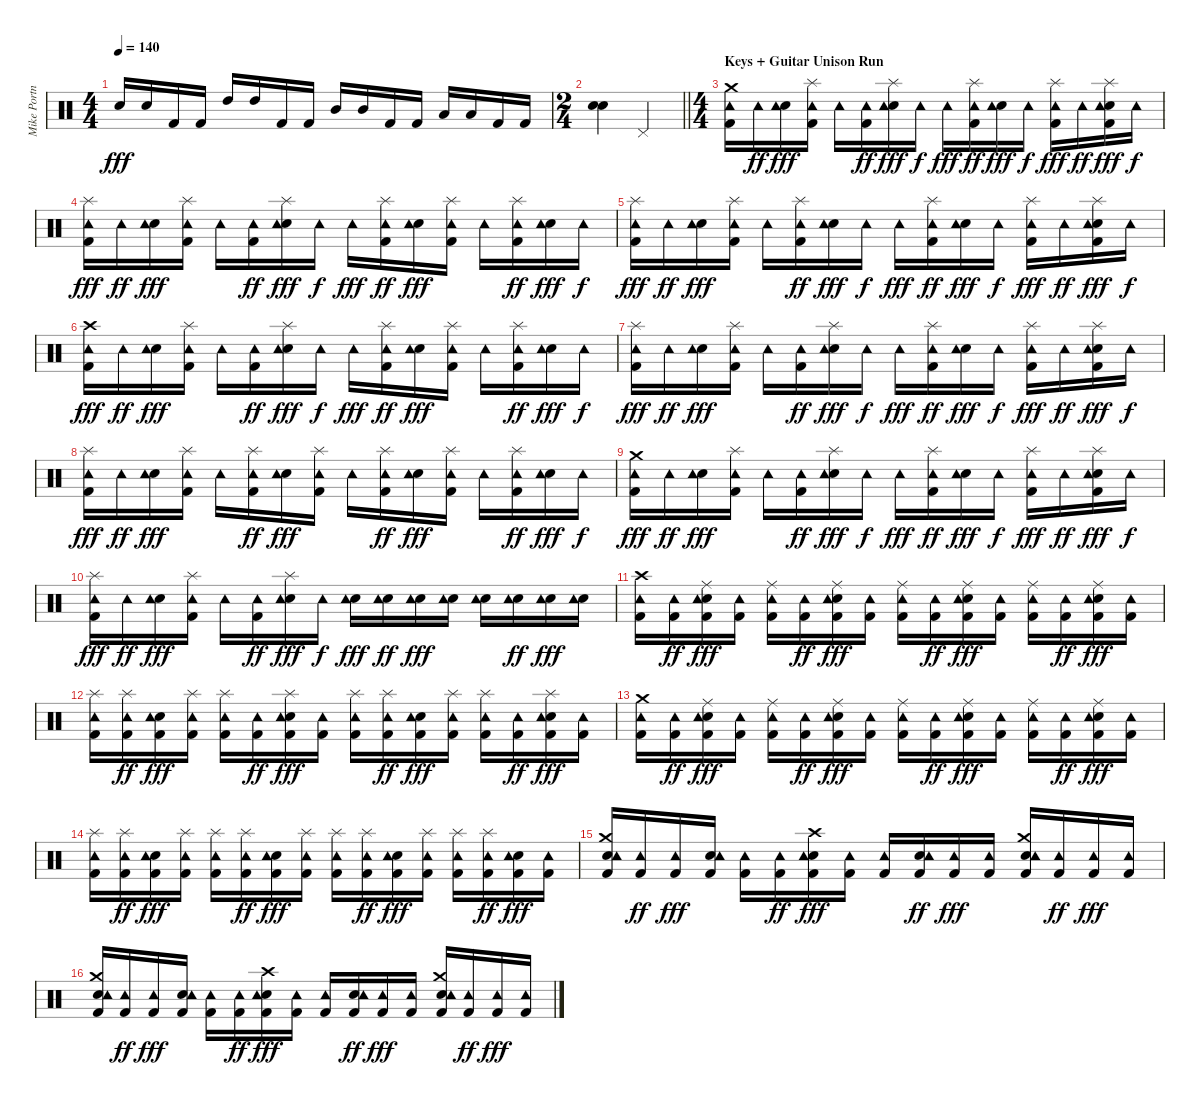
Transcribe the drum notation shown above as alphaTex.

\track ("Mike Portnoy" "Mike Portn") {instrument percussion}
\staff {score}
\articulation defaults
\ts (4 4)
\tempo 140
\clef neutral
\ks c "Snare (hit) 2".16{dy fff} "Snare (hit) 2".16 "Kick (hit) 2".16 "Kick (hit) 2".16 "High Tom (hit)".16 "High Tom (hit)".16 "Kick (hit) 2".16 "Kick (hit) 2".16 "Mid Tom (hit)".16 "Mid Tom (hit)".16 "Kick (hit) 2".16 "Kick (hit) 2".16 "Low Tom (hit)".16 "Low Tom (hit)".16 "Kick (hit) 2".16 "Kick (hit) 2".16
|
\ts (2 4)
\barLineRight lightlight
("Snare (hit) 2" "Snare (hit) 2").4 "Pedal Hi-Hat (hit)".4 |
\ts (4 4)
\section ("" "Keys + Guitar Unison Run")
("Crash medium (hit)" "Kick (hit) 2" "Tambourine (hit)").16 "Tambourine (hit)".16{dy ff} ("Snare (hit) 2" "Tambourine (hit)").16{dy fff} ("Splash (hit)" "Kick (hit) 2" "Tambourine (hit)").16 "Tambourine (hit)".16 ("Kick (hit) 2" "Tambourine (hit)").16{dy ff} ("Splash (hit)" "Snare (hit) 2" "Tambourine (hit)").16{dy fff} "Tambourine (hit)".16{dy f} "Tambourine (hit)".16{dy fff} ("Splash (hit)" "Kick (hit) 2" "Tambourine (hit)").16{dy ff} ("Snare (hit) 2" "Tambourine (hit)").16{dy fff} "Tambourine (hit)".16{dy f} ("Splash (hit)" "Kick (hit) 2" "Tambourine (hit)").16{dy fff} "Tambourine (hit)".16{dy ff} ("Splash (hit)" "Snare (hit) 2" "Kick (hit) 2" "Tambourine (hit)").16{dy fff} "Tambourine (hit)".16{dy f} |
("Splash (hit)" "Kick (hit) 2" "Tambourine (hit)").16{dy fff} "Tambourine (hit)".16{dy ff} ("Snare (hit) 2" "Tambourine (hit)").16{dy fff} ("Splash (hit)" "Kick (hit) 2" "Tambourine (hit)").16 "Tambourine (hit)".16 ("Kick (hit) 2" "Tambourine (hit)").16{dy ff} ("Splash (hit)" "Snare (hit) 2" "Tambourine (hit)").16{dy fff} "Tambourine (hit)".16{dy f} "Tambourine (hit)".16{dy fff} ("Splash (hit)" "Kick (hit) 2" "Tambourine (hit)").16{dy ff} ("Snare (hit) 2" "Tambourine (hit)").16{dy fff} ("Splash (hit)" "Kick (hit) 2" "Tambourine (hit)").16 "Tambourine (hit)".16 ("Splash (hit)" "Kick (hit) 2" "Tambourine (hit)").16{dy ff} ("Snare (hit) 2" "Tambourine (hit)").16{dy fff} "Tambourine (hit)".16{dy f} |
("Splash (hit)" "Kick (hit) 2" "Tambourine (hit)").16{dy fff} "Tambourine (hit)".16{dy ff} ("Snare (hit) 2" "Tambourine (hit)").16{dy fff} ("Splash (hit)" "Kick (hit) 2" "Tambourine (hit)").16 "Tambourine (hit)".16 ("Splash (hit)" "Kick (hit) 2" "Tambourine (hit)").16{dy ff} ("Snare (hit) 2" "Tambourine (hit)").16{dy fff} "Tambourine (hit)".16{dy f} "Tambourine (hit)".16{dy fff} ("Splash (hit)" "Kick (hit) 2" "Tambourine (hit)").16{dy ff} ("Snare (hit) 2" "Tambourine (hit)").16{dy fff} "Tambourine (hit)".16{dy f} ("Splash (hit)" "Kick (hit) 2" "Tambourine (hit)").16{dy fff} "Tambourine (hit)".16{dy ff} ("Splash (hit)" "Snare (hit) 2" "Kick (hit) 2" "Tambourine (hit)").16{dy fff} "Tambourine (hit)".16{dy f} |
("Crash high (hit)" "Kick (hit) 2" "Tambourine (hit)").16{dy fff} "Tambourine (hit)".16{dy ff} ("Snare (hit) 2" "Tambourine (hit)").16{dy fff} ("Splash (hit)" "Kick (hit) 2" "Tambourine (hit)").16 "Tambourine (hit)".16 ("Kick (hit) 2" "Tambourine (hit)").16{dy ff} ("Splash (hit)" "Snare (hit) 2" "Tambourine (hit)").16{dy fff} "Tambourine (hit)".16{dy f} "Tambourine (hit)".16{dy fff} ("Splash (hit)" "Kick (hit) 2" "Tambourine (hit)").16{dy ff} ("Snare (hit) 2" "Tambourine (hit)").16{dy fff} ("Splash (hit)" "Kick (hit) 2" "Tambourine (hit)").16 "Tambourine (hit)".16 ("Splash (hit)" "Kick (hit) 2" "Tambourine (hit)").16{dy ff} ("Snare (hit) 2" "Tambourine (hit)").16{dy fff} "Tambourine (hit)".16{dy f} |
("Splash (hit)" "Kick (hit) 2" "Tambourine (hit)").16{dy fff} "Tambourine (hit)".16{dy ff} ("Snare (hit) 2" "Tambourine (hit)").16{dy fff} ("Splash (hit)" "Kick (hit) 2" "Tambourine (hit)").16 "Tambourine (hit)".16 ("Kick (hit) 2" "Tambourine (hit)").16{dy ff} ("Splash (hit)" "Snare (hit) 2" "Tambourine (hit)").16{dy fff} "Tambourine (hit)".16{dy f} "Tambourine (hit)".16{dy fff} ("Splash (hit)" "Kick (hit) 2" "Tambourine (hit)").16{dy ff} ("Snare (hit) 2" "Tambourine (hit)").16{dy fff} "Tambourine (hit)".16{dy f} ("Splash (hit)" "Kick (hit) 2" "Tambourine (hit)").16{dy fff} "Tambourine (hit)".16{dy ff} ("Splash (hit)" "Snare (hit) 2" "Kick (hit) 2" "Tambourine (hit)").16{dy fff} "Tambourine (hit)".16{dy f} |
("Splash (hit)" "Kick (hit) 2" "Tambourine (hit)").16{dy fff} "Tambourine (hit)".16{dy ff} ("Snare (hit) 2" "Tambourine (hit)").16{dy fff} ("Splash (hit)" "Kick (hit) 2" "Tambourine (hit)").16 "Tambourine (hit)".16 ("Splash (hit)" "Kick (hit) 2" "Tambourine (hit)").16{dy ff} ("Snare (hit) 2" "Tambourine (hit)").16{dy fff} ("Splash (hit)" "Kick (hit) 2" "Tambourine (hit)").16 "Tambourine (hit)".16 ("Splash (hit)" "Kick (hit) 2" "Tambourine (hit)").16{dy ff} ("Snare (hit) 2" "Tambourine (hit)").16{dy fff} ("Splash (hit)" "Kick (hit) 2" "Tambourine (hit)").16 "Tambourine (hit)".16 ("Splash (hit)" "Kick (hit) 2" "Tambourine (hit)").16{dy ff} ("Snare (hit) 2" "Tambourine (hit)").16{dy fff} "Tambourine (hit)".16{dy f} |
("Crash medium (hit)" "Kick (hit) 2" "Tambourine (hit)").16{dy fff} "Tambourine (hit)".16{dy ff} ("Snare (hit) 2" "Tambourine (hit)").16{dy fff} ("Splash (hit)" "Kick (hit) 2" "Tambourine (hit)").16 "Tambourine (hit)".16 ("Kick (hit) 2" "Tambourine (hit)").16{dy ff} ("Splash (hit)" "Snare (hit) 2" "Tambourine (hit)").16{dy fff} "Tambourine (hit)".16{dy f} "Tambourine (hit)".16{dy fff} ("Splash (hit)" "Kick (hit) 2" "Tambourine (hit)").16{dy ff} ("Snare (hit) 2" "Tambourine (hit)").16{dy fff} "Tambourine (hit)".16{dy f} ("Splash (hit)" "Kick (hit) 2" "Tambourine (hit)").16{dy fff} "Tambourine (hit)".16{dy ff} ("Splash (hit)" "Snare (hit) 2" "Kick (hit) 2" "Tambourine (hit)").16{dy fff} "Tambourine (hit)".16{dy f} |
("Splash (hit)" "Kick (hit) 2" "Tambourine (hit)").16{dy fff} "Tambourine (hit)".16{dy ff} ("Snare (hit) 2" "Tambourine (hit)").16{dy fff} ("Splash (hit)" "Kick (hit) 2" "Tambourine (hit)").16 "Tambourine (hit)".16 ("Kick (hit) 2" "Tambourine (hit)").16{dy ff} ("Splash (hit)" "Snare (hit) 2" "Tambourine (hit)").16{dy fff} "Tambourine (hit)".16{dy f} ("Snare (hit) 2" "Tambourine (hit)").16{dy fff} ("Snare (hit) 2" "Tambourine (hit)").16{dy ff} ("Snare (hit) 2" "Tambourine (hit)").16{dy fff} ("Snare (hit) 2" "Tambourine (hit)").16 ("Snare (hit) 2" "Tambourine (hit)").16 ("Snare (hit) 2" "Tambourine (hit)").16{dy ff} ("Snare (hit) 2" "Tambourine (hit)").16{dy fff} ("Snare (hit) 2" "Tambourine (hit)").16 |
("Crash high (hit)" "Kick (hit) 2" "Tambourine (hit)").16 ("Kick (hit) 2" "Tambourine (hit)").16{dy ff} ("Ride (middle)" "Snare (hit) 2" "Kick (hit) 2" "Tambourine (hit)").16{dy fff} ("Kick (hit) 2" "Tambourine (hit)").16 ("Ride (middle)" "Kick (hit) 2" "Tambourine (hit)").16 ("Kick (hit) 2" "Tambourine (hit)").16{dy ff} ("Ride (middle)" "Snare (hit) 2" "Kick (hit) 2" "Tambourine (hit)").16{dy fff} ("Kick (hit) 2" "Tambourine (hit)").16 ("Ride (middle)" "Kick (hit) 2" "Tambourine (hit)").16 ("Kick (hit) 2" "Tambourine (hit)").16{dy ff} ("Ride (middle)" "Snare (hit) 2" "Kick (hit) 2" "Tambourine (hit)").16{dy fff} ("Kick (hit) 2" "Tambourine (hit)").16 ("Ride (middle)" "Kick (hit) 2" "Tambourine (hit)").16 ("Kick (hit) 2" "Tambourine (hit)").16{dy ff} ("Ride (middle)" "Snare (hit) 2" "Kick (hit) 2" "Tambourine (hit)").16{dy fff} ("Kick (hit) 2" "Tambourine (hit)").16 |
("Splash (hit)" "Kick (hit) 2" "Tambourine (hit)").16 ("Splash (hit)" "Kick (hit) 2" "Tambourine (hit)").16{dy ff} ("Snare (hit) 2" "Kick (hit) 2" "Tambourine (hit)").16{dy fff} ("Splash (hit)" "Kick (hit) 2" "Tambourine (hit)").16 ("Splash (hit)" "Kick (hit) 2" "Tambourine (hit)").16 ("Kick (hit) 2" "Tambourine (hit)").16{dy ff} ("Splash (hit)" "Snare (hit) 2" "Kick (hit) 2" "Tambourine (hit)").16{dy fff} ("Kick (hit) 2" "Tambourine (hit)").16 ("Splash (hit)" "Kick (hit) 2" "Tambourine (hit)").16 ("Splash (hit)" "Kick (hit) 2" "Tambourine (hit)").16{dy ff} ("Snare (hit) 2" "Kick (hit) 2" "Tambourine (hit)").16{dy fff} ("Splash (hit)" "Kick (hit) 2" "Tambourine (hit)").16 ("Splash (hit)" "Kick (hit) 2" "Tambourine (hit)").16 ("Kick (hit) 2" "Tambourine (hit)").16{dy ff} ("Splash (hit)" "Snare (hit) 2" "Kick (hit) 2" "Tambourine (hit)").16{dy fff} ("Kick (hit) 2" "Tambourine (hit)").16 |
("Crash medium (hit)" "Kick (hit) 2" "Tambourine (hit)").16 ("Kick (hit) 2" "Tambourine (hit)").16{dy ff} ("Ride (middle)" "Snare (hit) 2" "Kick (hit) 2" "Tambourine (hit)").16{dy fff} ("Kick (hit) 2" "Tambourine (hit)").16 ("Ride (middle)" "Kick (hit) 2" "Tambourine (hit)").16 ("Kick (hit) 2" "Tambourine (hit)").16{dy ff} ("Ride (middle)" "Snare (hit) 2" "Kick (hit) 2" "Tambourine (hit)").16{dy fff} ("Kick (hit) 2" "Tambourine (hit)").16 ("Ride (middle)" "Kick (hit) 2" "Tambourine (hit)").16 ("Kick (hit) 2" "Tambourine (hit)").16{dy ff} ("Ride (middle)" "Snare (hit) 2" "Kick (hit) 2" "Tambourine (hit)").16{dy fff} ("Kick (hit) 2" "Tambourine (hit)").16 ("Ride (middle)" "Kick (hit) 2" "Tambourine (hit)").16 ("Kick (hit) 2" "Tambourine (hit)").16{dy ff} ("Ride (middle)" "Snare (hit) 2" "Kick (hit) 2" "Tambourine (hit)").16{dy fff} ("Kick (hit) 2" "Tambourine (hit)").16 |
("Splash (hit)" "Kick (hit) 2" "Tambourine (hit)").16 ("Splash (hit)" "Kick (hit) 2" "Tambourine (hit)").16{dy ff} ("Snare (hit) 2" "Kick (hit) 2" "Tambourine (hit)").16{dy fff} ("Splash (hit)" "Kick (hit) 2" "Tambourine (hit)").16 ("Splash (hit)" "Kick (hit) 2" "Tambourine (hit)").16 ("Splash (hit)" "Kick (hit) 2" "Tambourine (hit)").16{dy ff} ("Snare (hit) 2" "Kick (hit) 2" "Tambourine (hit)").16{dy fff} ("Splash (hit)" "Kick (hit) 2" "Tambourine (hit)").16 ("Splash (hit)" "Kick (hit) 2" "Tambourine (hit)").16 ("Splash (hit)" "Kick (hit) 2" "Tambourine (hit)").16{dy ff} ("Snare (hit) 2" "Kick (hit) 2" "Tambourine (hit)").16{dy fff} ("Splash (hit)" "Kick (hit) 2" "Tambourine (hit)").16 ("Splash (hit)" "Kick (hit) 2" "Tambourine (hit)").16 ("Splash (hit)" "Kick (hit) 2" "Tambourine (hit)").16{dy ff} ("Snare (hit) 2" "Kick (hit) 2" "Tambourine (hit)").16{dy fff} ("Kick (hit) 2" "Tambourine (hit)").16 |
("Crash medium (hit)" "Snare (hit) 2" "Kick (hit) 2" "Tambourine (hit)").16 ("Kick (hit) 2" "Tambourine (hit)").16{dy ff} ("Kick (hit) 2" "Tambourine (hit)").16{dy fff} ("Snare (hit) 2" "Kick (hit) 2" "Tambourine (hit)").16 ("Kick (hit) 2" "Tambourine (hit)").16 ("Kick (hit) 2" "Tambourine (hit)").16{dy ff} ("Crash high (hit)" "Snare (hit) 2" "Kick (hit) 2" "Tambourine (hit)").16{dy fff} ("Kick (hit) 2" "Tambourine (hit)").16 ("Kick (hit) 2" "Tambourine (hit)").16 ("Snare (hit) 2" "Kick (hit) 2" "Tambourine (hit)").16{dy ff} ("Kick (hit) 2" "Tambourine (hit)").16{dy fff} ("Kick (hit) 2" "Tambourine (hit)").16 ("Crash medium (hit)" "Snare (hit) 2" "Kick (hit) 2" "Tambourine (hit)").16 ("Kick (hit) 2" "Tambourine (hit)").16{dy ff} ("Kick (hit) 2" "Tambourine (hit)").16{dy fff} ("Kick (hit) 2" "Tambourine (hit)").16 |
("Crash medium (hit)" "Snare (hit) 2" "Kick (hit) 2" "Tambourine (hit)").16 ("Kick (hit) 2" "Tambourine (hit)").16{dy ff} ("Kick (hit) 2" "Tambourine (hit)").16{dy fff} ("Snare (hit) 2" "Kick (hit) 2" "Tambourine (hit)").16 ("Kick (hit) 2" "Tambourine (hit)").16 ("Kick (hit) 2" "Tambourine (hit)").16{dy ff} ("Crash high (hit)" "Snare (hit) 2" "Kick (hit) 2" "Tambourine (hit)").16{dy fff} ("Kick (hit) 2" "Tambourine (hit)").16 ("Kick (hit) 2" "Tambourine (hit)").16 ("Snare (hit) 2" "Kick (hit) 2" "Tambourine (hit)").16{dy ff} ("Kick (hit) 2" "Tambourine (hit)").16{dy fff} ("Kick (hit) 2" "Tambourine (hit)").16 ("Crash medium (hit)" "Snare (hit) 2" "Kick (hit) 2" "Tambourine (hit)").16 ("Kick (hit) 2" "Tambourine (hit)").16{dy ff} ("Kick (hit) 2" "Tambourine (hit)").16{dy fff} ("Kick (hit) 2" "Tambourine (hit)").16
